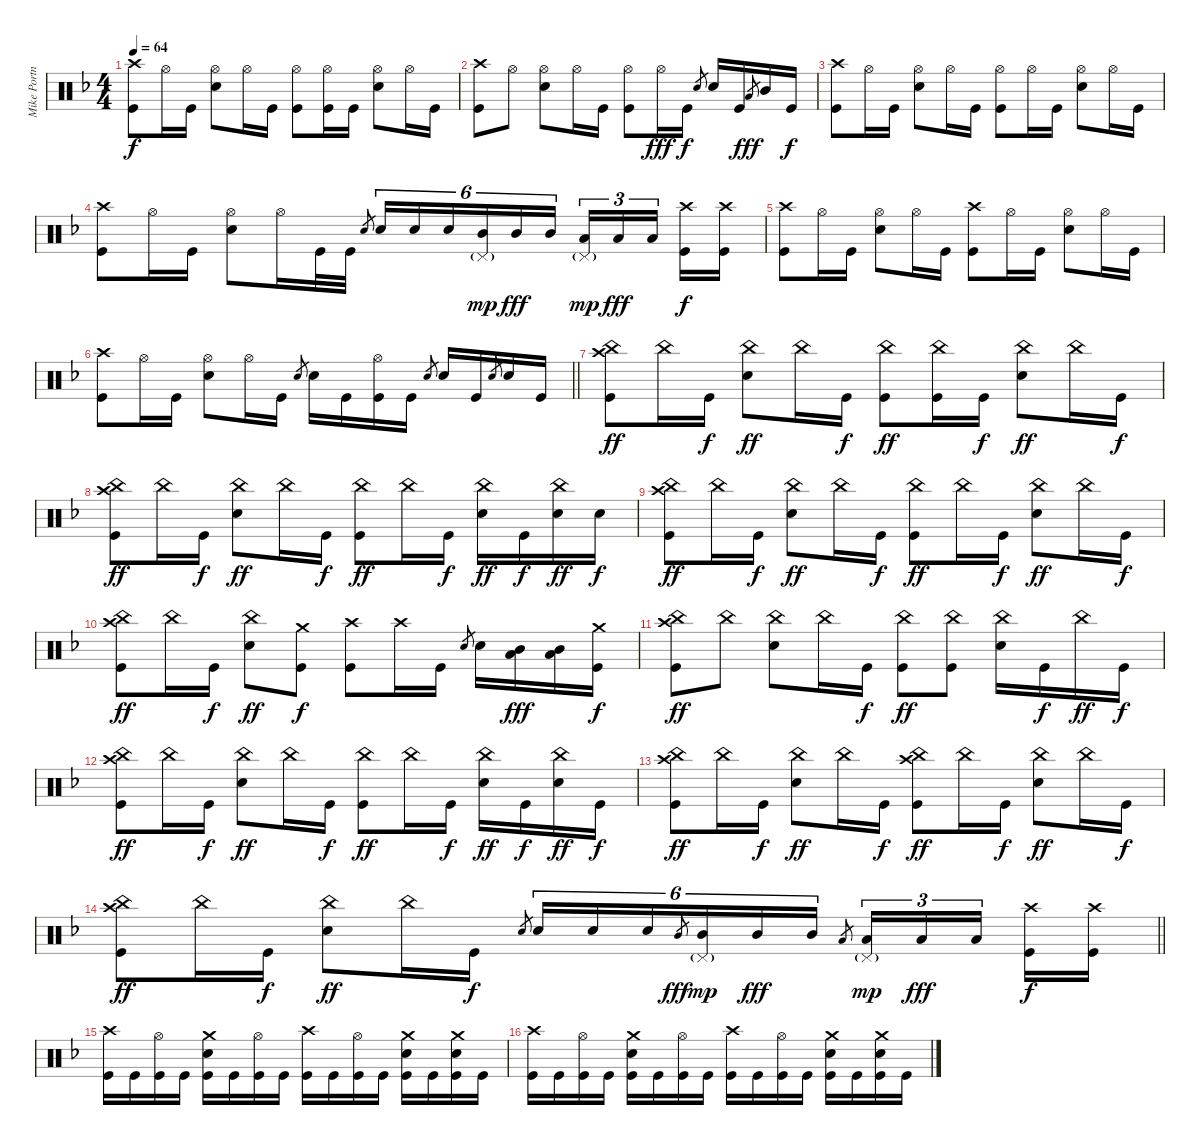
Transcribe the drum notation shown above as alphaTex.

\track ("Mike Portnoy - Drums" "Mike Portn") {instrument percussion}
\staff {score}
\articulation defaults
\ts (4 4)
\tempo 64
\clef neutral
\ks dminor
("Crash high (hit)" "Kick (hit)").8{dy f} "Hi-Hat (open)".16 "Kick (hit)".16 ("Hi-Hat (open)" "Snare (hit) 2").8 "Hi-Hat (open)".16 "Kick (hit)".16 ("Hi-Hat (open)" "Kick (hit)").8 ("Hi-Hat (open)" "Kick (hit)").16 "Kick (hit)".16 ("Hi-Hat (open)" "Snare (hit) 2").8 "Hi-Hat (open)".16 "Kick (hit)".16 |
("Crash high (hit)" "Kick (hit)").8 "Hi-Hat (open)".8 ("Hi-Hat (open)" "Snare (hit) 2").8 "Hi-Hat (open)".16 "Kick (hit)".16 ("Hi-Hat (open)" "Kick (hit)").8 "Hi-Hat (open)".16{dy fff} "Kick (hit)".16{dy f} "Snare (hit) 2".8{gr} "Snare (hit) 2".16 "Kick (hit)".16 "Low Tom (hit)".8{gr dy fff} "Mid Tom (hit)".16 "Kick (hit)".16{dy f} |
("Crash high (hit)" "Kick (hit)").8 "Hi-Hat (open)".16 "Kick (hit)".16 ("Hi-Hat (open)" "Snare (hit) 2").8 "Hi-Hat (open)".16 "Kick (hit)".16 ("Hi-Hat (open)" "Kick (hit)").8 "Hi-Hat (open)".16 "Kick (hit)".16 ("Hi-Hat (open)" "Snare (hit) 2").8 "Hi-Hat (open)".16 "Kick (hit)".16 |
("Crash high (hit)" "Kick (hit)").8 "Hi-Hat (open)".16 "Kick (hit)".16 ("Hi-Hat (open)" "Snare (hit) 2").8 "Hi-Hat (open)".16 "Kick (hit)".32 "Kick (hit)".32 "Snare (hit) 2".8{gr} "Snare (hit) 2".16{tu (6 4)} "Snare (hit) 2".16{tu (6 4)} "Snare (hit) 2".16{tu (6 4)} ("Mid Tom (hit)" "Pedal Hi-Hat (hit)"{g}).16{tu (6 4) dy mp} "Mid Tom (hit)".16{tu (6 4) dy fff} "Mid Tom (hit)".16{tu (6 4)} ("Low Tom (hit)" "Pedal Hi-Hat (hit)"{g}).16{tu (3 2) dy mp} "Low Tom (hit)".16{tu (3 2) dy fff} "Low Tom (hit)".16{tu (3 2) beam splitsecondary} ("Crash high (hit)" "Kick (hit)").16{dy f} ("Crash high (hit)" "Kick (hit)").16 |
("Crash high (hit)" "Kick (hit)").8 "Hi-Hat (open)".16 "Kick (hit)".16 ("Hi-Hat (open)" "Snare (hit) 2").8 "Hi-Hat (open)".16 "Kick (hit)".16 ("Crash high (hit)" "Kick (hit)").8 "Hi-Hat (open)".16 "Kick (hit)".16 ("Hi-Hat (open)" "Snare (hit) 2").8 "Hi-Hat (open)".16 "Kick (hit)".16 |
\barLineRight lightlight
("Crash high (hit)" "Kick (hit)").8 "Hi-Hat (open)".16 "Kick (hit)".16 ("Hi-Hat (open)" "Snare (hit) 2").8 "Hi-Hat (open)".16 "Kick (hit)".16 "Snare (hit) 2".8{gr} "Snare (hit) 2".16 "Kick (hit)".16 ("Hi-Hat (open)" "Kick (hit)").16 "Kick (hit)".16 "Snare (hit) 2".8{gr} "Snare (hit) 2".16 "Kick (hit)".16 "Snare (hit) 2".8{gr} "Snare (hit) 2".16 "Kick (hit)".16 |
("Crash high (hit)" "China (hit)" "Kick (hit)").8{dy ff} "China (hit)".16 "Kick (hit)".16{dy f} ("China (hit)" "Snare (hit) 2").8{dy ff} "China (hit)".16 "Kick (hit)".16{dy f} ("China (hit)" "Kick (hit)").8{dy ff} ("China (hit)" "Kick (hit)").16 "Kick (hit)".16{dy f} ("China (hit)" "Snare (hit) 2").8{dy ff} "China (hit)".16 "Kick (hit)".16{dy f} |
("Crash high (hit)" "China (hit)" "Kick (hit)").8{dy ff} "China (hit)".16 "Kick (hit)".16{dy f} ("China (hit)" "Snare (hit) 2").8{dy ff} "China (hit)".16 "Kick (hit)".16{dy f} ("China (hit)" "Kick (hit)").8{dy ff} "China (hit)".16 "Kick (hit)".16{dy f} ("China (hit)" "Snare (hit) 2").16{dy ff} "Kick (hit)".16{dy f} ("China (hit)" "Snare (hit) 2").16{dy ff} "Snare (hit) 2".16{dy f} |
("Crash high (hit)" "China (hit)" "Kick (hit)").8{dy ff} "China (hit)".16 "Kick (hit)".16{dy f} ("China (hit)" "Snare (hit) 2").8{dy ff} "China (hit)".16 "Kick (hit)".16{dy f} ("China (hit)" "Kick (hit)").8{dy ff} "China (hit)".16 "Kick (hit)".16{dy f} ("China (hit)" "Snare (hit) 2").8{dy ff} "China (hit)".16 "Kick (hit)".16{dy f} |
("Crash high (hit)" "China (hit)" "Kick (hit)").8{dy ff} "China (hit)".16 "Kick (hit)".16{dy f} ("China (hit)" "Snare (hit) 2").8{dy ff} ("Crash medium (hit)" "Kick (hit)").8{dy f} ("Crash high (hit)" "Kick (hit)").8 "Crash high (hit)".16 "Kick (hit)".16 "Snare (hit) 2".8{gr} "Snare (hit) 2".16 ("Mid Tom (hit)" "Low Tom (hit)").16{dy fff} ("Mid Tom (hit)" "Low Tom (hit)").16 ("Crash medium (hit)" "Kick (hit)").16{dy f} |
("Crash high (hit)" "China (hit)" "Kick (hit)").8{dy ff} "China (hit)".8 ("China (hit)" "Snare (hit) 2").8 "China (hit)".16 "Kick (hit)".16{dy f} ("China (hit)" "Kick (hit)").8{dy ff} ("China (hit)" "Kick (hit)").8 ("China (hit)" "Snare (hit) 2").16 "Kick (hit)".16{dy f} "China (hit)".16{dy ff} "Kick (hit)".16{dy f} |
("Crash high (hit)" "China (hit)" "Kick (hit)").8{dy ff} "China (hit)".16 "Kick (hit)".16{dy f} ("China (hit)" "Snare (hit) 2").8{dy ff} "China (hit)".16 "Kick (hit)".16{dy f} ("China (hit)" "Kick (hit)").8{dy ff} "China (hit)".16 "Kick (hit)".16{dy f} ("China (hit)" "Snare (hit) 2").16{dy ff} "Kick (hit)".16{dy f} ("China (hit)" "Snare (hit) 2").16{dy ff} "Kick (hit)".16{dy f} |
("Crash high (hit)" "China (hit)" "Kick (hit)").8{dy ff} "China (hit)".16 "Kick (hit)".16{dy f} ("China (hit)" "Snare (hit) 2").8{dy ff} "China (hit)".16 "Kick (hit)".16{dy f} ("Crash high (hit)" "China (hit)" "Kick (hit)").8{dy ff} "China (hit)".16 "Kick (hit)".16{dy f} ("China (hit)" "Snare (hit) 2").8{dy ff} "China (hit)".16 "Kick (hit)".16{dy f} |
\barLineRight lightlight
("Crash high (hit)" "China (hit)" "Kick (hit)").8{dy ff} "China (hit)".16 "Kick (hit)".16{dy f} ("China (hit)" "Snare (hit) 2").8{dy ff} "China (hit)".16 "Kick (hit)".16{dy f} "Snare (hit) 2".8{gr} "Snare (hit) 2".16{tu (6 4)} "Snare (hit) 2".16{tu (6 4)} "Snare (hit) 2".16{tu (6 4)} "Mid Tom (hit)".8{gr dy fff} ("Mid Tom (hit)" "Pedal Hi-Hat (hit)"{g}).16{tu (6 4) dy mp} "Mid Tom (hit)".16{tu (6 4) dy fff} "Mid Tom (hit)".16{tu (6 4)} "Low Tom (hit)".8{gr} ("Low Tom (hit)" "Pedal Hi-Hat (hit)"{g}).16{tu (3 2) dy mp} "Low Tom (hit)".16{tu (3 2) dy fff} "Low Tom (hit)".16{tu (3 2) beam splitsecondary} ("Crash high (hit)" "Kick (hit)").16{dy f} ("Crash high (hit)" "Kick (hit)").16 |
("Crash high (hit)" "Kick (hit)").16 "Kick (hit)".16 ("Hi-Hat (open)" "Kick (hit)").16 "Kick (hit)".16 ("Crash medium (hit)" "Snare (hit) 2" "Kick (hit)").16 "Kick (hit)".16 ("Hi-Hat (open)" "Kick (hit)").16 "Kick (hit)".16 ("Crash high (hit)" "Kick (hit)").16 "Kick (hit)".16 ("Hi-Hat (open)" "Kick (hit)").16 "Kick (hit)".16 ("Crash medium (hit)" "Snare (hit) 2" "Kick (hit)").16 "Kick (hit)".16 ("Crash medium (hit)" "Snare (hit) 2" "Kick (hit)").16 "Kick (hit)".16 |
("Crash high (hit)" "Kick (hit)").16 "Kick (hit)".16 ("Hi-Hat (open)" "Kick (hit)").16 "Kick (hit)".16 ("Crash medium (hit)" "Snare (hit) 2" "Kick (hit)").16 "Kick (hit)".16 ("Hi-Hat (open)" "Kick (hit)").16 "Kick (hit)".16 ("Crash high (hit)" "Kick (hit)").16 "Kick (hit)".16 ("Hi-Hat (open)" "Kick (hit)").16 "Kick (hit)".16 ("Crash medium (hit)" "Snare (hit) 2" "Kick (hit)").16 "Kick (hit)".16 ("Crash medium (hit)" "Snare (hit) 2" "Kick (hit)").16 "Kick (hit)".16
